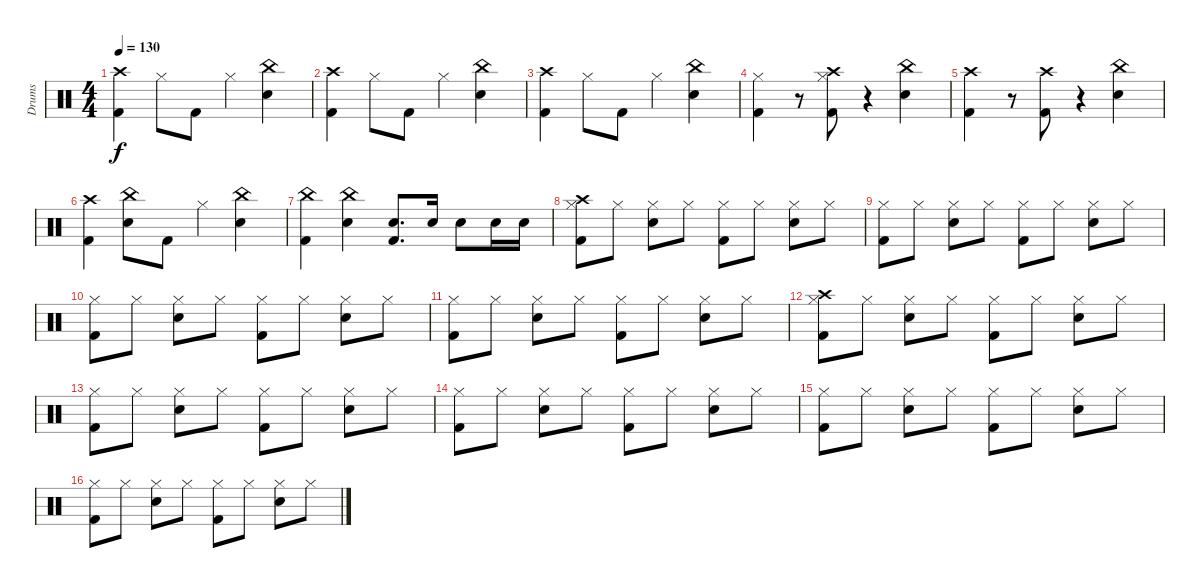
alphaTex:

\track ("Drums" "Drums") {instrument percussion}
\staff {score}
\articulation defaults
\ts (4 4)
\tempo 130
\clef neutral
\ks c
("Crash high (hit)" "Kick (hit) 2").4{dy f} "Hi-Hat (closed)".8 "Kick (hit) 2".8 "Hi-Hat (closed)".4 ("China (hit)" "Electric Snare (hit)").4 |
("Crash high (hit)" "Kick (hit) 2").4 "Hi-Hat (closed)".8 "Kick (hit) 2".8 "Hi-Hat (closed)".4 ("China (hit)" "Electric Snare (hit)").4 |
("Crash high (hit)" "Kick (hit) 2").4 "Hi-Hat (closed)".8 "Kick (hit) 2".8 "Hi-Hat (closed)".4 ("China (hit)" "Electric Snare (hit)").4 |
("Hi-Hat (closed)" "Kick (hit) 2").4 r.8 ("Crash high (hit)" "Kick (hit) 2" "Hi-Hat (closed)").8 r.4 ("China (hit)" "Electric Snare (hit)").4 |
("Crash high (hit)" "Kick (hit) 2").4 r.8 ("Crash high (hit)" "Kick (hit) 2").8 r.4 ("China (hit)" "Electric Snare (hit)").4 |
("Crash high (hit)" "Kick (hit) 2").4 ("China (hit)" "Electric Snare (hit)").8 "Kick (hit) 2".8 "Hi-Hat (closed)".4 ("China (hit)" "Electric Snare (hit)").4 |
("China (hit)" "Kick (hit) 2").4 ("China (hit)" "Electric Snare (hit)").4 ("Electric Snare (hit)" "Kick (hit) 2").8{d} "Electric Snare (hit)".16 "Electric Snare (hit)".8 "Electric Snare (hit)".16 "Electric Snare (hit)".16 |
("Hi-Hat (closed)" "Kick (hit) 2" "Crash high (hit)").8 "Hi-Hat (closed)".8 ("Hi-Hat (closed)" "Electric Snare (hit)").8 "Hi-Hat (closed)".8 ("Hi-Hat (closed)" "Kick (hit) 2").8 "Hi-Hat (closed)".8 ("Hi-Hat (closed)" "Electric Snare (hit)").8 "Hi-Hat (closed)".8 |
("Hi-Hat (closed)" "Kick (hit) 2").8 "Hi-Hat (closed)".8 ("Hi-Hat (closed)" "Electric Snare (hit)").8 "Hi-Hat (closed)".8 ("Hi-Hat (closed)" "Kick (hit) 2").8 "Hi-Hat (closed)".8 ("Hi-Hat (closed)" "Electric Snare (hit)").8 "Hi-Hat (closed)".8 |
("Hi-Hat (closed)" "Kick (hit) 2").8 "Hi-Hat (closed)".8 ("Hi-Hat (closed)" "Electric Snare (hit)").8 "Hi-Hat (closed)".8 ("Hi-Hat (closed)" "Kick (hit) 2").8 "Hi-Hat (closed)".8 ("Hi-Hat (closed)" "Electric Snare (hit)").8 "Hi-Hat (closed)".8 |
("Hi-Hat (closed)" "Kick (hit) 2").8 "Hi-Hat (closed)".8 ("Hi-Hat (closed)" "Electric Snare (hit)").8 "Hi-Hat (closed)".8 ("Hi-Hat (closed)" "Kick (hit) 2").8 "Hi-Hat (closed)".8 ("Hi-Hat (closed)" "Electric Snare (hit)").8 "Hi-Hat (closed)".8 |
("Hi-Hat (closed)" "Kick (hit) 2" "Crash high (hit)").8 "Hi-Hat (closed)".8 ("Hi-Hat (closed)" "Electric Snare (hit)").8 "Hi-Hat (closed)".8 ("Hi-Hat (closed)" "Kick (hit) 2").8 "Hi-Hat (closed)".8 ("Hi-Hat (closed)" "Electric Snare (hit)").8 "Hi-Hat (closed)".8 |
("Hi-Hat (closed)" "Kick (hit) 2").8 "Hi-Hat (closed)".8 ("Hi-Hat (closed)" "Electric Snare (hit)").8 "Hi-Hat (closed)".8 ("Hi-Hat (closed)" "Kick (hit) 2").8 "Hi-Hat (closed)".8 ("Hi-Hat (closed)" "Electric Snare (hit)").8 "Hi-Hat (closed)".8 |
("Hi-Hat (closed)" "Kick (hit) 2").8 "Hi-Hat (closed)".8 ("Hi-Hat (closed)" "Electric Snare (hit)").8 "Hi-Hat (closed)".8 ("Hi-Hat (closed)" "Kick (hit) 2").8 "Hi-Hat (closed)".8 ("Hi-Hat (closed)" "Electric Snare (hit)").8 "Hi-Hat (closed)".8 |
("Hi-Hat (closed)" "Kick (hit) 2").8 "Hi-Hat (closed)".8 ("Hi-Hat (closed)" "Electric Snare (hit)").8 "Hi-Hat (closed)".8 ("Hi-Hat (closed)" "Kick (hit) 2").8 "Hi-Hat (closed)".8 ("Hi-Hat (closed)" "Electric Snare (hit)").8 "Hi-Hat (closed)".8 |
("Hi-Hat (closed)" "Kick (hit) 2").8 "Hi-Hat (closed)".8 ("Hi-Hat (closed)" "Electric Snare (hit)").8 "Hi-Hat (closed)".8 ("Hi-Hat (closed)" "Kick (hit) 2").8 "Hi-Hat (closed)".8 ("Hi-Hat (closed)" "Electric Snare (hit)").8 "Hi-Hat (closed)".8
